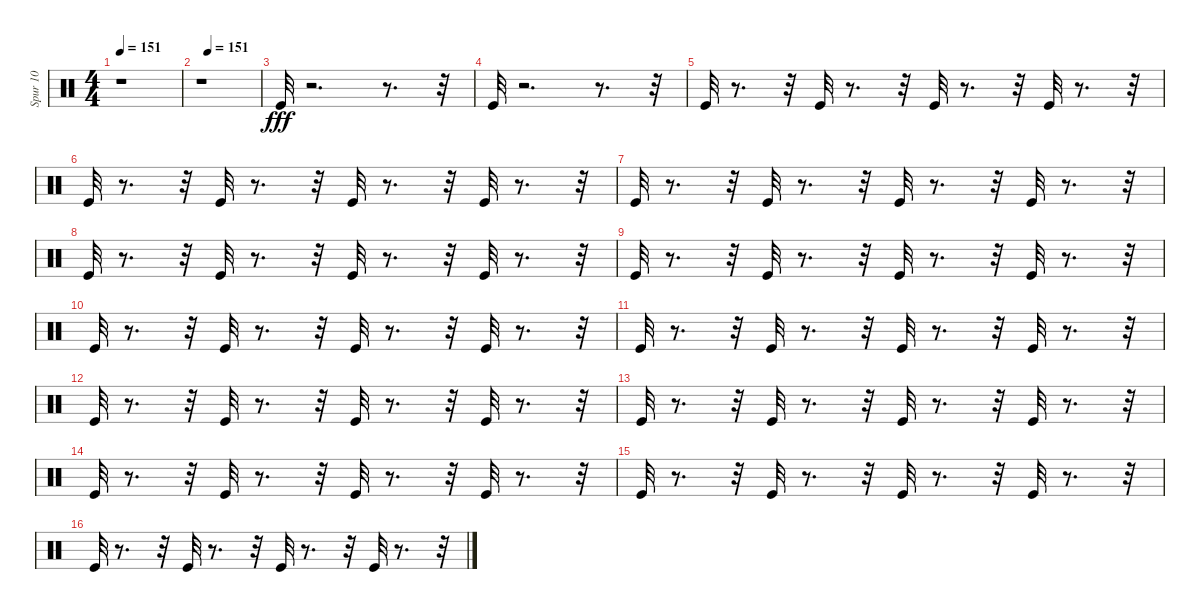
\track ("Spur 10" "Spur 10") {instrument percussion}
\staff {score}
\articulation defaults
\ts (4 4)
\tempo 151
\clef neutral
\ks c
r.1{dy fff} |
\tempo (151 0.125)
r.1 |
"Kick (hit)".32{volume 14 balance 8} r.2{d} r.8{d} r.32 |
"Kick (hit)".32 r.2{d} r.8{d} r.32 |
"Kick (hit)".32 r.8{d} r.32 "Kick (hit)".32 r.8{d} r.32 "Kick (hit)".32 r.8{d} r.32 "Kick (hit)".32 r.8{d} r.32 |
"Kick (hit)".32 r.8{d} r.32 "Kick (hit)".32 r.8{d} r.32 "Kick (hit)".32 r.8{d} r.32 "Kick (hit)".32 r.8{d} r.32 |
"Kick (hit)".32 r.8{d} r.32 "Kick (hit)".32 r.8{d} r.32 "Kick (hit)".32 r.8{d} r.32 "Kick (hit)".32 r.8{d} r.32 |
"Kick (hit)".32 r.8{d} r.32 "Kick (hit)".32 r.8{d} r.32 "Kick (hit)".32 r.8{d} r.32 "Kick (hit)".32 r.8{d} r.32 |
"Kick (hit)".32 r.8{d} r.32 "Kick (hit)".32 r.8{d} r.32 "Kick (hit)".32 r.8{d} r.32 "Kick (hit)".32 r.8{d} r.32 |
"Kick (hit)".32 r.8{d} r.32 "Kick (hit)".32 r.8{d} r.32 "Kick (hit)".32 r.8{d} r.32 "Kick (hit)".32 r.8{d} r.32 |
"Kick (hit)".32 r.8{d} r.32 "Kick (hit)".32 r.8{d} r.32 "Kick (hit)".32 r.8{d} r.32 "Kick (hit)".32 r.8{d} r.32 |
"Kick (hit)".32 r.8{d} r.32 "Kick (hit)".32 r.8{d} r.32 "Kick (hit)".32 r.8{d} r.32 "Kick (hit)".32 r.8{d} r.32 |
"Kick (hit)".32 r.8{d} r.32 "Kick (hit)".32 r.8{d} r.32 "Kick (hit)".32 r.8{d} r.32 "Kick (hit)".32 r.8{d} r.32 |
"Kick (hit)".32 r.8{d} r.32 "Kick (hit)".32 r.8{d} r.32 "Kick (hit)".32 r.8{d} r.32 "Kick (hit)".32 r.8{d} r.32 |
"Kick (hit)".32 r.8{d} r.32 "Kick (hit)".32 r.8{d} r.32 "Kick (hit)".32 r.8{d} r.32 "Kick (hit)".32 r.8{d} r.32 |
"Kick (hit)".32 r.8{d} r.32 "Kick (hit)".32 r.8{d} r.32 "Kick (hit)".32 r.8{d} r.32 "Kick (hit)".32 r.8{d} r.32
